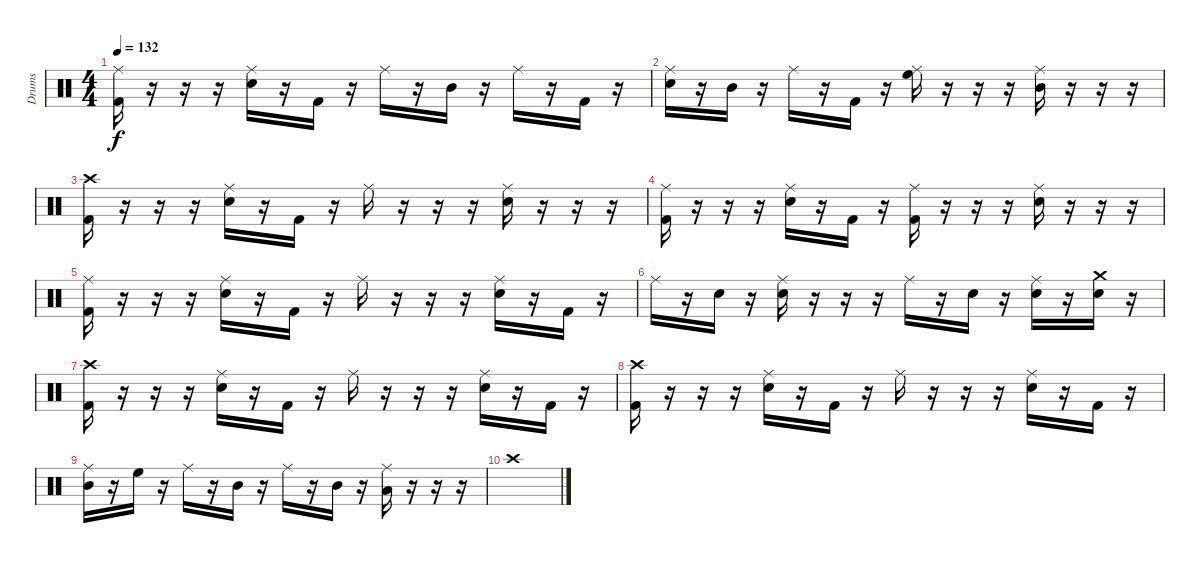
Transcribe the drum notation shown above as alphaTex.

\track ("Drums" "Drums") {instrument percussion}
\staff {score}
\articulation defaults
\ts (4 4)
\tempo 132
\clef neutral
\ks c
("Ride (middle)" "Kick (hit) 2").16{dy f} r.16 r.16 r.16 ("Ride (middle)" "Snare (hit) 2").16 r.16 "Kick (hit) 2".16 r.16 "Ride (middle)".16 r.16 "Mid Tom (hit)".16 r.16 "Ride (middle)".16 r.16 "Kick (hit) 2".16 r.16 |
("Ride (middle)" "Snare (hit) 2").16 r.16 "Mid Tom (hit)".16 r.16 "Ride (middle)".16 r.16 "Kick (hit) 2".16 r.16 ("Ride (middle)" "High Floor Tom (hit)").16 r.16 r.16 r.16 ("Ride (middle)" "Mid Tom (hit)").16 r.16 r.16 r.16 |
("Crash high (hit)" "Kick (hit) 2").16 r.16 r.16 r.16 ("Ride (middle)" "Snare (hit) 2").16 r.16 "Kick (hit) 2".16 r.16 "Ride (middle)".16 r.16 r.16 r.16 ("Ride (middle)" "Snare (hit) 2").16 r.16 r.16 r.16 |
("Ride (middle)" "Kick (hit) 2").16 r.16 r.16 r.16 ("Ride (middle)" "Snare (hit) 2").16 r.16 "Kick (hit) 2".16 r.16 ("Ride (middle)" "Kick (hit) 2").16 r.16 r.16 r.16 ("Ride (middle)" "Snare (hit) 2").16 r.16 r.16 r.16 |
("Ride (middle)" "Kick (hit) 2").16 r.16 r.16 r.16 ("Ride (middle)" "Snare (hit) 2").16 r.16 "Kick (hit) 2".16 r.16 "Ride (middle)".16 r.16 r.16 r.16 ("Ride (middle)" "Snare (hit) 2").16 r.16 "Kick (hit) 2".16 r.16 |
"Ride (middle)".16 r.16 "Snare (hit) 2".16 r.16 ("Ride (middle)" "Snare (hit) 2").16 r.16 r.16 r.16 "Ride (middle)".16 r.16 "Snare (hit) 2".16 r.16 ("Ride (middle)" "Snare (hit) 2").16 r.16 ("Crash medium (hit)" "Snare (hit) 2").16 r.16 |
("Crash high (hit)" "Kick (hit) 2").16 r.16 r.16 r.16 ("Ride (middle)" "Snare (hit) 2").16 r.16 "Kick (hit) 2".16 r.16 "Ride (middle)".16 r.16 r.16 r.16 ("Ride (middle)" "Snare (hit) 2").16 r.16 "Kick (hit) 2".16 r.16 |
("Crash high (hit)" "Kick (hit) 2").16 r.16 r.16 r.16 ("Ride (middle)" "Snare (hit) 2").16 r.16 "Kick (hit) 2".16 r.16 "Ride (middle)".16 r.16 r.16 r.16 ("Ride (middle)" "Snare (hit) 2").16 r.16 "Kick (hit) 2".16 r.16 |
("Ride (middle)" "Mid Tom (hit)").16 r.16 "High Floor Tom (hit)".16 r.16 "Ride (middle)".16 r.16 "Mid Tom (hit)".16 r.16 "Ride (middle)".16 r.16 "Mid Tom (hit)".16 r.16 ("Ride (middle)" "Low Tom (hit)").16 r.16 r.16 r.16 |
"Crash high (hit)".1
